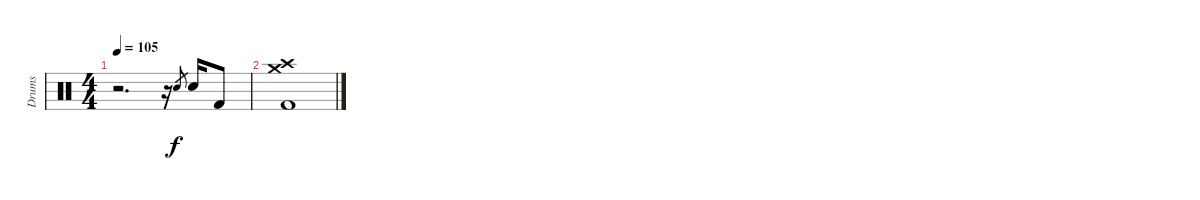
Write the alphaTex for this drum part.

\track ("Drums" "Drums") {instrument percussion}
\staff {score}
\articulation defaults
\ts (4 4)
\tempo 105
\clef neutral
\ks c
r.2{d dy f} r.16 "Electric Snare (hit)".8{gr} "Electric Snare (hit)".16 "Kick (hit) 2".8 |
("Crash medium (hit)" "Crash high (hit)" "Kick (hit) 2").1
